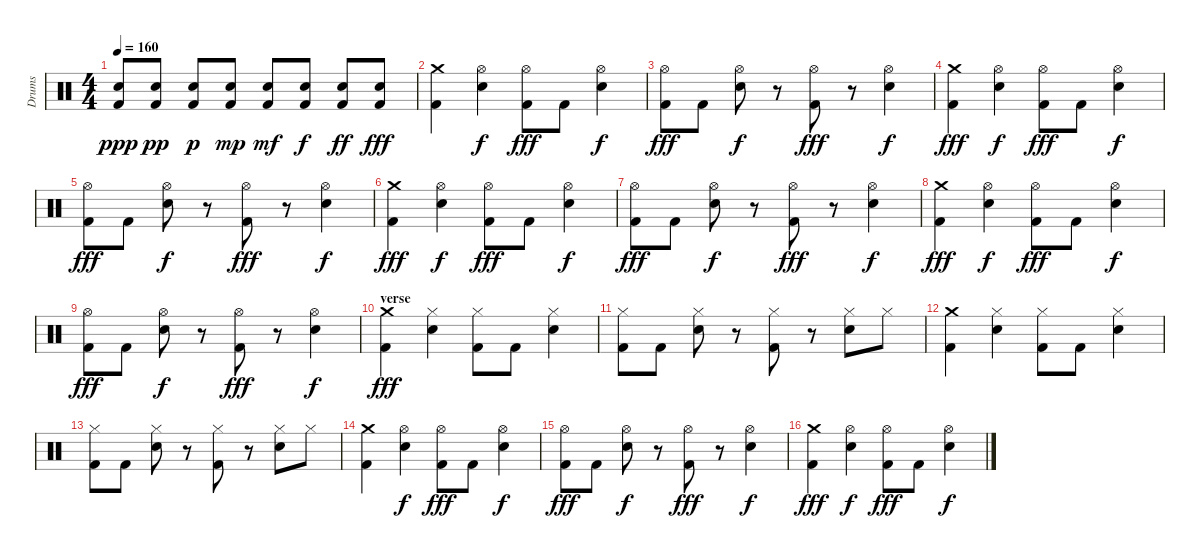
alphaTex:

\track ("Drums" "Drums") {instrument percussion}
\staff {score}
\articulation defaults
\ts (4 4)
\tempo 160
\clef neutral
\ks c
("Electric Snare (hit)" "Kick (hit) 2").8{dy ppp} ("Electric Snare (hit)" "Kick (hit) 2").8{dy pp} ("Electric Snare (hit)" "Kick (hit) 2").8{dy p} ("Electric Snare (hit)" "Kick (hit) 2").8{dy mp} ("Electric Snare (hit)" "Kick (hit) 2").8{dy mf} ("Electric Snare (hit)" "Kick (hit) 2").8{dy f} ("Electric Snare (hit)" "Kick (hit) 2").8{dy ff} ("Electric Snare (hit)" "Kick (hit) 2").8{dy fff} |
("Crash medium (hit)" "Kick (hit) 2").4 ("Hi-Hat (open)" "Electric Snare (hit)").4{dy f} ("Hi-Hat (open)" "Kick (hit) 2").8{dy fff} "Kick (hit) 2".8 ("Hi-Hat (open)" "Electric Snare (hit)").4{dy f} |
("Hi-Hat (open)" "Kick (hit) 2").8{dy fff} "Kick (hit) 2".8 ("Hi-Hat (open)" "Electric Snare (hit)").8{dy f} r.8 ("Hi-Hat (open)" "Kick (hit) 2").8{dy fff} r.8 ("Hi-Hat (open)" "Electric Snare (hit)").4{dy f} |
("Crash medium (hit)" "Kick (hit) 2").4{dy fff} ("Hi-Hat (open)" "Electric Snare (hit)").4{dy f} ("Hi-Hat (open)" "Kick (hit) 2").8{dy fff} "Kick (hit) 2".8 ("Hi-Hat (open)" "Electric Snare (hit)").4{dy f} |
("Hi-Hat (open)" "Kick (hit) 2").8{dy fff} "Kick (hit) 2".8 ("Hi-Hat (open)" "Electric Snare (hit)").8{dy f} r.8 ("Hi-Hat (open)" "Kick (hit) 2").8{dy fff} r.8 ("Hi-Hat (open)" "Electric Snare (hit)").4{dy f} |
("Crash medium (hit)" "Kick (hit) 2").4{dy fff} ("Hi-Hat (open)" "Electric Snare (hit)").4{dy f} ("Hi-Hat (open)" "Kick (hit) 2").8{dy fff} "Kick (hit) 2".8 ("Hi-Hat (open)" "Electric Snare (hit)").4{dy f} |
("Hi-Hat (open)" "Kick (hit) 2").8{dy fff} "Kick (hit) 2".8 ("Hi-Hat (open)" "Electric Snare (hit)").8{dy f} r.8 ("Hi-Hat (open)" "Kick (hit) 2").8{dy fff} r.8 ("Hi-Hat (open)" "Electric Snare (hit)").4{dy f} |
("Crash medium (hit)" "Kick (hit) 2").4{dy fff} ("Hi-Hat (open)" "Electric Snare (hit)").4{dy f} ("Hi-Hat (open)" "Kick (hit) 2").8{dy fff} "Kick (hit) 2".8 ("Hi-Hat (open)" "Electric Snare (hit)").4{dy f} |
("Hi-Hat (open)" "Kick (hit) 2").8{dy fff} "Kick (hit) 2".8 ("Hi-Hat (open)" "Electric Snare (hit)").8{dy f} r.8 ("Hi-Hat (open)" "Kick (hit) 2").8{dy fff} r.8 ("Hi-Hat (open)" "Electric Snare (hit)").4{dy f} |
\section ("" "verse")
("Crash medium (hit)" "Kick (hit) 2").4{dy fff} ("Hi-Hat (closed)" "Electric Snare (hit)").4 ("Hi-Hat (closed)" "Kick (hit) 2").8 "Kick (hit) 2".8 ("Hi-Hat (closed)" "Electric Snare (hit)").4 |
("Hi-Hat (closed)" "Kick (hit) 2").8 "Kick (hit) 2".8 ("Hi-Hat (closed)" "Electric Snare (hit)").8 r.8 ("Hi-Hat (closed)" "Kick (hit) 2").8 r.8 ("Hi-Hat (closed)" "Electric Snare (hit)").8 "Hi-Hat (closed)".8 |
("Crash medium (hit)" "Kick (hit) 2").4 ("Hi-Hat (closed)" "Electric Snare (hit)").4 ("Hi-Hat (closed)" "Kick (hit) 2").8 "Kick (hit) 2".8 ("Hi-Hat (closed)" "Electric Snare (hit)").4 |
("Hi-Hat (closed)" "Kick (hit) 2").8 "Kick (hit) 2".8 ("Hi-Hat (closed)" "Electric Snare (hit)").8 r.8 ("Hi-Hat (closed)" "Kick (hit) 2").8 r.8 ("Hi-Hat (closed)" "Electric Snare (hit)").8 "Hi-Hat (closed)".8 |
("Crash medium (hit)" "Kick (hit) 2").4 ("Hi-Hat (open)" "Electric Snare (hit)").4{dy f} ("Hi-Hat (open)" "Kick (hit) 2").8{dy fff} "Kick (hit) 2".8 ("Hi-Hat (open)" "Electric Snare (hit)").4{dy f} |
("Hi-Hat (open)" "Kick (hit) 2").8{dy fff} "Kick (hit) 2".8 ("Hi-Hat (open)" "Electric Snare (hit)").8{dy f} r.8 ("Hi-Hat (open)" "Kick (hit) 2").8{dy fff} r.8 ("Hi-Hat (open)" "Electric Snare (hit)").4{dy f} |
("Crash medium (hit)" "Kick (hit) 2").4{dy fff} ("Hi-Hat (open)" "Electric Snare (hit)").4{dy f} ("Hi-Hat (open)" "Kick (hit) 2").8{dy fff} "Kick (hit) 2".8 ("Hi-Hat (open)" "Electric Snare (hit)").4{dy f}
